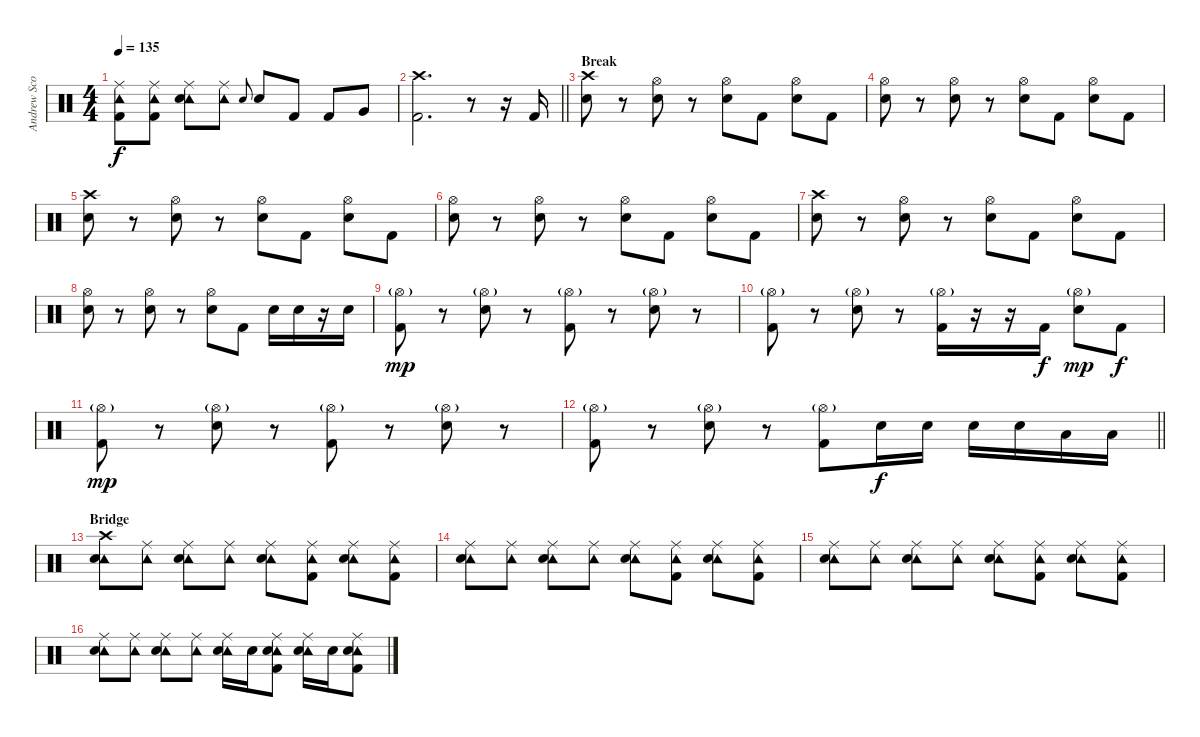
\track ("Andrew Scott" "Andrew Sco") {instrument percussion}
\staff {score}
\articulation defaults
\ts (4 4)
\tempo 135
\clef neutral
\ks c
("Ride (middle)" "Tambourine (hit)" "Kick (hit) 2").8{dy f} ("Ride (middle)" "Tambourine (hit)" "Kick (hit) 2").8 ("Ride (middle)" "Tambourine (hit)" "Snare (hit) 2").8 ("Ride (middle)" "Tambourine (hit)").8 "Snare (hit) 2".8{gr onbeat} "Snare (hit) 2".8 "Kick (hit) 2".8 "Kick (hit) 2".8 "Very Low Tom (hit)".8 |
\barLineRight lightlight
("Crash high (hit)" "Kick (hit) 2").2{d} r.8 r.16 "Kick (hit) 2".16 |
\section ("" "Break")
("Crash high (hit)" "Snare (hit) 2").8 r.8 ("Hi-Hat (open)" "Snare (hit) 2").8 r.8 ("Hi-Hat (open)" "Snare (hit) 2").8 "Kick (hit) 2".8 ("Hi-Hat (open)" "Snare (hit) 2").8 "Kick (hit) 2".8 |
("Hi-Hat (open)" "Snare (hit) 2").8 r.8 ("Hi-Hat (open)" "Snare (hit) 2").8 r.8 ("Hi-Hat (open)" "Snare (hit) 2").8 "Kick (hit) 2".8 ("Hi-Hat (open)" "Snare (hit) 2").8 "Kick (hit) 2".8 |
("Crash high (hit)" "Snare (hit) 2").8 r.8 ("Hi-Hat (open)" "Snare (hit) 2").8 r.8 ("Hi-Hat (open)" "Snare (hit) 2").8 "Kick (hit) 2".8 ("Hi-Hat (open)" "Snare (hit) 2").8 "Kick (hit) 2".8 |
("Hi-Hat (open)" "Snare (hit) 2").8 r.8 ("Hi-Hat (open)" "Snare (hit) 2").8 r.8 ("Hi-Hat (open)" "Snare (hit) 2").8 "Kick (hit) 2".8 ("Hi-Hat (open)" "Snare (hit) 2").8 "Kick (hit) 2".8 |
("Crash high (hit)" "Snare (hit) 2").8 r.8 ("Hi-Hat (open)" "Snare (hit) 2").8 r.8 ("Hi-Hat (open)" "Snare (hit) 2").8 "Kick (hit) 2".8 ("Hi-Hat (open)" "Snare (hit) 2").8 "Kick (hit) 2".8 |
("Hi-Hat (open)" "Snare (hit) 2").8 r.8 ("Hi-Hat (open)" "Snare (hit) 2").8 r.8 ("Hi-Hat (open)" "Snare (hit) 2").8 "Kick (hit) 2".8 "Snare (hit) 2".16 "Snare (hit) 2".16 r.16 "Snare (hit) 2".16 |
("Hi-Hat (open)"{g} "Kick (hit) 2").8{dy mp} r.8 ("Hi-Hat (open)"{g} "Snare (hit) 2").8 r.8 ("Hi-Hat (open)"{g} "Kick (hit) 2").8 r.8 ("Hi-Hat (open)"{g} "Snare (hit) 2").8 r.8 |
("Hi-Hat (open)"{g} "Kick (hit) 2").8 r.8 ("Hi-Hat (open)"{g} "Snare (hit) 2").8 r.8 ("Hi-Hat (open)"{g} "Kick (hit) 2").16 r.16 r.16 "Kick (hit) 2".16{dy f} ("Hi-Hat (open)"{g} "Snare (hit) 2").8{dy mp} "Kick (hit) 2".8{dy f} |
("Hi-Hat (open)"{g} "Kick (hit) 2").8{dy mp} r.8 ("Hi-Hat (open)"{g} "Snare (hit) 2").8 r.8 ("Hi-Hat (open)"{g} "Kick (hit) 2").8 r.8 ("Hi-Hat (open)"{g} "Snare (hit) 2").8 r.8 |
\barLineRight lightlight
("Hi-Hat (open)"{g} "Kick (hit) 2").8 r.8 ("Hi-Hat (open)"{g} "Snare (hit) 2").8 r.8 ("Hi-Hat (open)"{g} "Kick (hit) 2").8 "Snare (hit) 2".16{dy f} "Snare (hit) 2".16 "Snare (hit) 2".16 "Snare (hit) 2".16 "Low Tom (hit)".16 "Low Tom (hit)".16 |
\section ("" "Bridge")
("Crash high (hit)" "Tambourine (hit)" "Snare (hit) 2").8 ("Ride (middle)" "Tambourine (hit)").8 ("Ride (middle)" "Tambourine (hit)" "Snare (hit) 2").8 ("Ride (middle)" "Tambourine (hit)").8 ("Ride (middle)" "Tambourine (hit)" "Snare (hit) 2").8 ("Ride (middle)" "Tambourine (hit)" "Kick (hit) 2").8 ("Ride (middle)" "Tambourine (hit)" "Snare (hit) 2").8 ("Ride (middle)" "Tambourine (hit)" "Kick (hit) 2").8 |
("Ride (middle)" "Tambourine (hit)" "Snare (hit) 2").8 ("Ride (middle)" "Tambourine (hit)").8 ("Ride (middle)" "Tambourine (hit)" "Snare (hit) 2").8 ("Ride (middle)" "Tambourine (hit)").8 ("Ride (middle)" "Tambourine (hit)" "Snare (hit) 2").8 ("Ride (middle)" "Tambourine (hit)" "Kick (hit) 2").8 ("Ride (middle)" "Tambourine (hit)" "Snare (hit) 2").8 ("Ride (middle)" "Tambourine (hit)" "Kick (hit) 2").8 |
("Ride (middle)" "Tambourine (hit)" "Snare (hit) 2").8 ("Ride (middle)" "Tambourine (hit)").8 ("Ride (middle)" "Tambourine (hit)" "Snare (hit) 2").8 ("Ride (middle)" "Tambourine (hit)").8 ("Ride (middle)" "Tambourine (hit)" "Snare (hit) 2").8 ("Ride (middle)" "Tambourine (hit)" "Kick (hit) 2").8 ("Ride (middle)" "Tambourine (hit)" "Snare (hit) 2").8 ("Ride (middle)" "Tambourine (hit)" "Kick (hit) 2").8 |
("Ride (middle)" "Tambourine (hit)" "Snare (hit) 2").8 ("Ride (middle)" "Tambourine (hit)").8 ("Ride (middle)" "Tambourine (hit)" "Snare (hit) 2").8 ("Ride (middle)" "Tambourine (hit)").8 ("Ride (middle)" "Tambourine (hit)" "Snare (hit) 2").16 "Snare (hit) 2".16 ("Ride (middle)" "Tambourine (hit)" "Snare (hit) 2" "Kick (hit) 2").8 ("Ride (middle)" "Tambourine (hit)" "Snare (hit) 2").16 "Snare (hit) 2".16 ("Ride (middle)" "Tambourine (hit)" "Snare (hit) 2" "Kick (hit) 2").8
